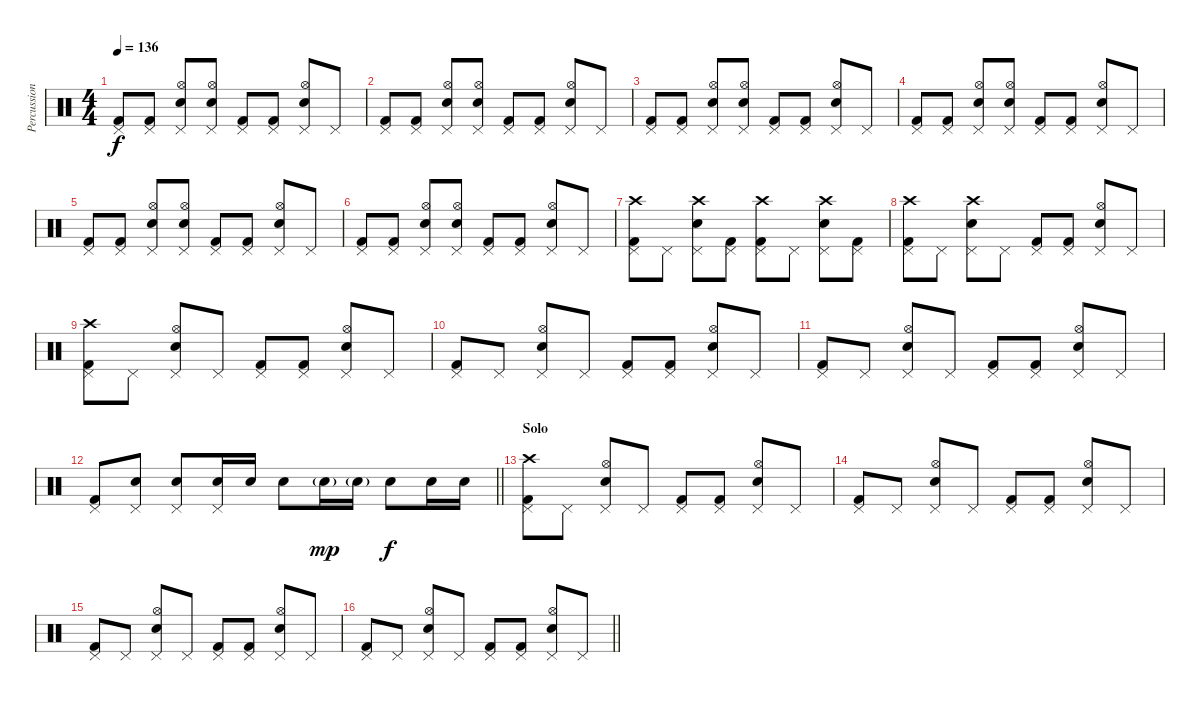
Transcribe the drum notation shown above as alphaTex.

\track ("Percussion" "Percussion") {instrument percussion}
\staff {score}
\articulation defaults
\ts (4 4)
\tempo 136
\clef neutral
\ks c
("Pedal Hi-Hat (hit)" "Kick (hit) 2").8{dy f} ("Pedal Hi-Hat (hit)" "Kick (hit) 2").8 ("Hi-Hat (open)" "Pedal Hi-Hat (hit)" "Snare (hit) 2").8 ("Hi-Hat (open)" "Pedal Hi-Hat (hit)" "Snare (hit) 2").8 ("Pedal Hi-Hat (hit)" "Kick (hit) 2").8 ("Pedal Hi-Hat (hit)" "Kick (hit) 2").8 ("Hi-Hat (open)" "Pedal Hi-Hat (hit)" "Snare (hit) 2").8 "Pedal Hi-Hat (hit)".8 |
("Pedal Hi-Hat (hit)" "Kick (hit) 2").8 ("Pedal Hi-Hat (hit)" "Kick (hit) 2").8 ("Hi-Hat (open)" "Pedal Hi-Hat (hit)" "Snare (hit) 2").8 ("Hi-Hat (open)" "Pedal Hi-Hat (hit)" "Snare (hit) 2").8 ("Pedal Hi-Hat (hit)" "Kick (hit) 2").8 ("Pedal Hi-Hat (hit)" "Kick (hit) 2").8 ("Hi-Hat (open)" "Pedal Hi-Hat (hit)" "Snare (hit) 2").8 "Pedal Hi-Hat (hit)".8 |
("Pedal Hi-Hat (hit)" "Kick (hit) 2").8 ("Pedal Hi-Hat (hit)" "Kick (hit) 2").8 ("Hi-Hat (open)" "Pedal Hi-Hat (hit)" "Snare (hit) 2").8 ("Hi-Hat (open)" "Pedal Hi-Hat (hit)" "Snare (hit) 2").8 ("Pedal Hi-Hat (hit)" "Kick (hit) 2").8 ("Pedal Hi-Hat (hit)" "Kick (hit) 2").8 ("Hi-Hat (open)" "Pedal Hi-Hat (hit)" "Snare (hit) 2").8 "Pedal Hi-Hat (hit)".8 |
("Pedal Hi-Hat (hit)" "Kick (hit) 2").8 ("Pedal Hi-Hat (hit)" "Kick (hit) 2").8 ("Hi-Hat (open)" "Pedal Hi-Hat (hit)" "Snare (hit) 2").8 ("Hi-Hat (open)" "Pedal Hi-Hat (hit)" "Snare (hit) 2").8 ("Pedal Hi-Hat (hit)" "Kick (hit) 2").8 ("Pedal Hi-Hat (hit)" "Kick (hit) 2").8 ("Hi-Hat (open)" "Pedal Hi-Hat (hit)" "Snare (hit) 2").8 "Pedal Hi-Hat (hit)".8 |
("Pedal Hi-Hat (hit)" "Kick (hit) 2").8 ("Pedal Hi-Hat (hit)" "Kick (hit) 2").8 ("Hi-Hat (open)" "Pedal Hi-Hat (hit)" "Snare (hit) 2").8 ("Hi-Hat (open)" "Pedal Hi-Hat (hit)" "Snare (hit) 2").8 ("Pedal Hi-Hat (hit)" "Kick (hit) 2").8 ("Pedal Hi-Hat (hit)" "Kick (hit) 2").8 ("Hi-Hat (open)" "Pedal Hi-Hat (hit)" "Snare (hit) 2").8 "Pedal Hi-Hat (hit)".8 |
("Pedal Hi-Hat (hit)" "Kick (hit) 2").8 ("Pedal Hi-Hat (hit)" "Kick (hit) 2").8 ("Hi-Hat (open)" "Pedal Hi-Hat (hit)" "Snare (hit) 2").8 ("Hi-Hat (open)" "Pedal Hi-Hat (hit)" "Snare (hit) 2").8 ("Pedal Hi-Hat (hit)" "Kick (hit) 2").8 ("Pedal Hi-Hat (hit)" "Kick (hit) 2").8 ("Hi-Hat (open)" "Pedal Hi-Hat (hit)" "Snare (hit) 2").8 "Pedal Hi-Hat (hit)".8 |
("Crash high (hit)" "Pedal Hi-Hat (hit)" "Kick (hit) 2").8 "Pedal Hi-Hat (hit)".8 ("Crash high (hit)" "Pedal Hi-Hat (hit)" "Snare (hit) 2").8 ("Pedal Hi-Hat (hit)" "Kick (hit) 2").8 ("Crash high (hit)" "Pedal Hi-Hat (hit)" "Kick (hit) 2").8 "Pedal Hi-Hat (hit)".8 ("Crash high (hit)" "Pedal Hi-Hat (hit)" "Snare (hit) 2").8 ("Pedal Hi-Hat (hit)" "Kick (hit) 2").8 |
("Crash high (hit)" "Pedal Hi-Hat (hit)" "Kick (hit) 2").8 "Pedal Hi-Hat (hit)".8 ("Crash high (hit)" "Pedal Hi-Hat (hit)" "Snare (hit) 2").8 "Pedal Hi-Hat (hit)".8 ("Pedal Hi-Hat (hit)" "Kick (hit) 2").8 ("Pedal Hi-Hat (hit)" "Kick (hit) 2").8 ("Hi-Hat (open)" "Pedal Hi-Hat (hit)" "Snare (hit) 2").8 "Pedal Hi-Hat (hit)".8 |
("Crash high (hit)" "Pedal Hi-Hat (hit)" "Kick (hit) 2").8 "Pedal Hi-Hat (hit)".8 ("Hi-Hat (open)" "Pedal Hi-Hat (hit)" "Snare (hit) 2").8 "Pedal Hi-Hat (hit)".8 ("Pedal Hi-Hat (hit)" "Kick (hit) 2").8 ("Pedal Hi-Hat (hit)" "Kick (hit) 2").8 ("Hi-Hat (open)" "Pedal Hi-Hat (hit)" "Snare (hit) 2").8 "Pedal Hi-Hat (hit)".8 |
("Pedal Hi-Hat (hit)" "Kick (hit) 2").8 "Pedal Hi-Hat (hit)".8 ("Hi-Hat (open)" "Pedal Hi-Hat (hit)" "Snare (hit) 2").8 "Pedal Hi-Hat (hit)".8 ("Pedal Hi-Hat (hit)" "Kick (hit) 2").8 ("Pedal Hi-Hat (hit)" "Kick (hit) 2").8 ("Hi-Hat (open)" "Pedal Hi-Hat (hit)" "Snare (hit) 2").8 "Pedal Hi-Hat (hit)".8 |
("Pedal Hi-Hat (hit)" "Kick (hit) 2").8 "Pedal Hi-Hat (hit)".8 ("Hi-Hat (open)" "Pedal Hi-Hat (hit)" "Snare (hit) 2").8 "Pedal Hi-Hat (hit)".8 ("Pedal Hi-Hat (hit)" "Kick (hit) 2").8 ("Pedal Hi-Hat (hit)" "Kick (hit) 2").8 ("Hi-Hat (open)" "Pedal Hi-Hat (hit)" "Snare (hit) 2").8 "Pedal Hi-Hat (hit)".8 |
\barLineRight lightlight
("Pedal Hi-Hat (hit)" "Kick (hit) 2").8 ("Pedal Hi-Hat (hit)" "Snare (hit) 2").8 ("Pedal Hi-Hat (hit)" "Snare (hit) 2").8 ("Pedal Hi-Hat (hit)" "Snare (hit) 2").16 "Snare (hit) 2".16 "Snare (hit) 2".8 "Snare (hit) 2"{g}.16{dy mp} "Snare (hit) 2"{g}.16 "Snare (hit) 2".8{dy f} "Snare (hit) 2".16 "Snare (hit) 2".16 |
\section ("" "Solo")
("Crash high (hit)" "Pedal Hi-Hat (hit)" "Kick (hit) 2").8 "Pedal Hi-Hat (hit)".8 ("Hi-Hat (open)" "Pedal Hi-Hat (hit)" "Snare (hit) 2").8 "Pedal Hi-Hat (hit)".8 ("Pedal Hi-Hat (hit)" "Kick (hit) 2").8 ("Pedal Hi-Hat (hit)" "Kick (hit) 2").8 ("Hi-Hat (open)" "Pedal Hi-Hat (hit)" "Snare (hit) 2").8 "Pedal Hi-Hat (hit)".8 |
("Pedal Hi-Hat (hit)" "Kick (hit) 2").8 "Pedal Hi-Hat (hit)".8 ("Hi-Hat (open)" "Pedal Hi-Hat (hit)" "Snare (hit) 2").8 "Pedal Hi-Hat (hit)".8 ("Pedal Hi-Hat (hit)" "Kick (hit) 2").8 ("Pedal Hi-Hat (hit)" "Kick (hit) 2").8 ("Hi-Hat (open)" "Pedal Hi-Hat (hit)" "Snare (hit) 2").8 "Pedal Hi-Hat (hit)".8 |
("Pedal Hi-Hat (hit)" "Kick (hit) 2").8 "Pedal Hi-Hat (hit)".8 ("Hi-Hat (open)" "Pedal Hi-Hat (hit)" "Snare (hit) 2").8 "Pedal Hi-Hat (hit)".8 ("Pedal Hi-Hat (hit)" "Kick (hit) 2").8 ("Pedal Hi-Hat (hit)" "Kick (hit) 2").8 ("Hi-Hat (open)" "Pedal Hi-Hat (hit)" "Snare (hit) 2").8 "Pedal Hi-Hat (hit)".8 |
\barLineRight lightlight
("Pedal Hi-Hat (hit)" "Kick (hit) 2").8 "Pedal Hi-Hat (hit)".8 ("Hi-Hat (open)" "Pedal Hi-Hat (hit)" "Snare (hit) 2").8 "Pedal Hi-Hat (hit)".8 ("Pedal Hi-Hat (hit)" "Kick (hit) 2").8 ("Pedal Hi-Hat (hit)" "Kick (hit) 2").8 ("Hi-Hat (open)" "Pedal Hi-Hat (hit)" "Snare (hit) 2").8 "Pedal Hi-Hat (hit)".8
